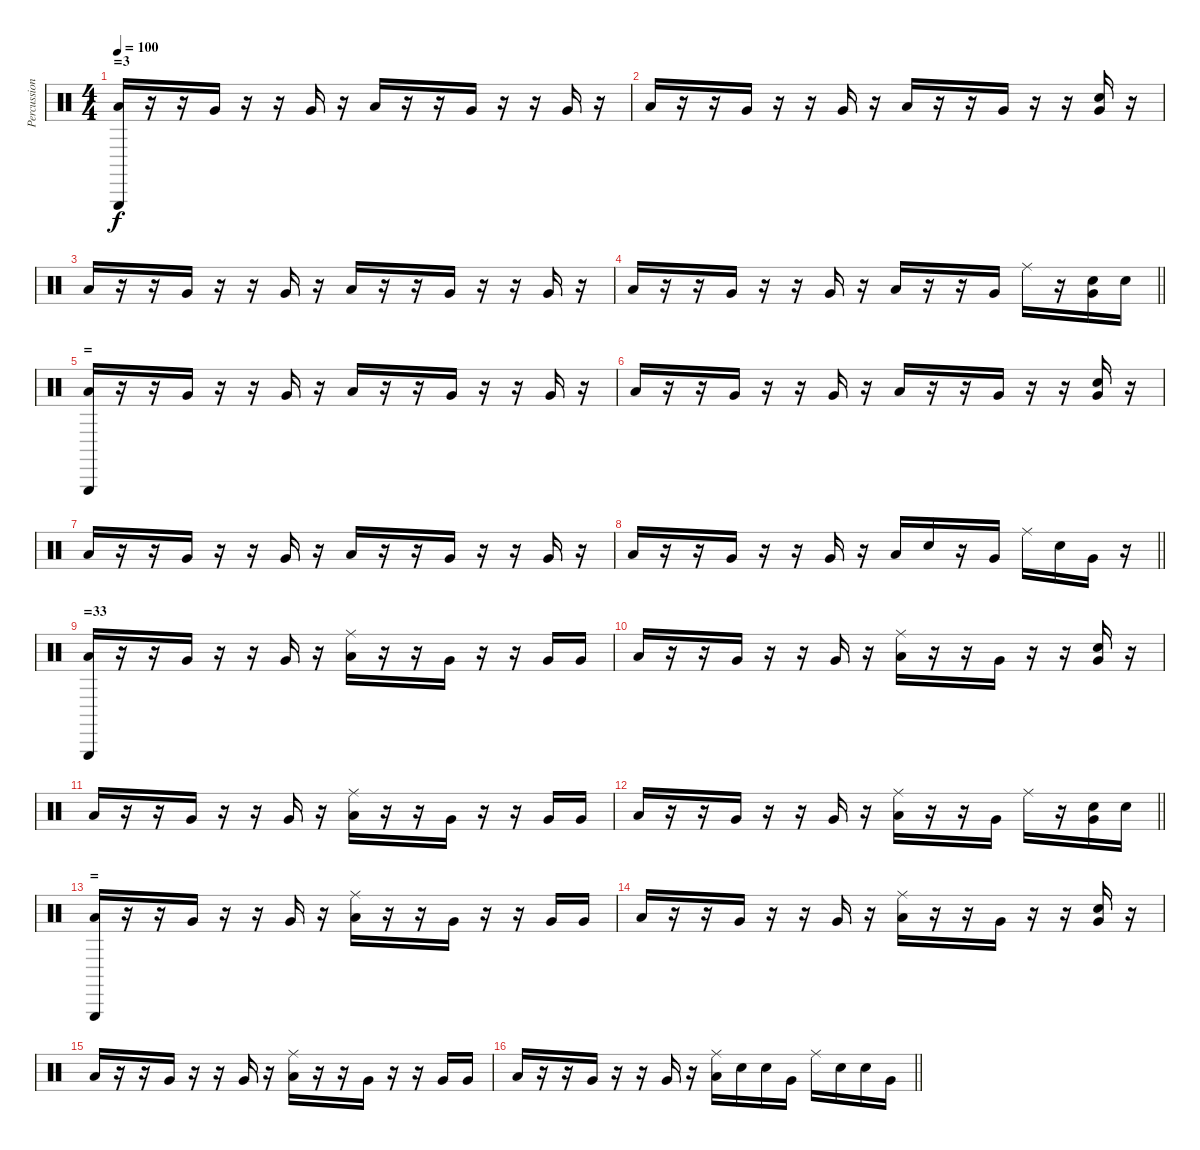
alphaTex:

\track ("Percussion" "Percussion") {instrument percussion}
\staff {score}
\articulation defaults
\ts (4 4)
\section ("" "=3")
\tempo 100
\clef neutral
\ks c
("Low Floor Tom (hit)" "Triangle (hit)").16{dy f} r.16 r.16 "Very Low Tom (hit)".16 r.16 r.16 "Very Low Tom (hit)".16 r.16 "Low Floor Tom (hit)".16 r.16 r.16 "Very Low Tom (hit)".16 r.16 r.16 "Very Low Tom (hit)".16 r.16 |
"Low Floor Tom (hit)".16 r.16 r.16 "Very Low Tom (hit)".16 r.16 r.16 "Very Low Tom (hit)".16 r.16 "Low Floor Tom (hit)".16 r.16 r.16 "Very Low Tom (hit)".16 r.16 r.16 ("Very Low Tom (hit)" "Electric Snare (hit)").16 r.16 |
"Low Floor Tom (hit)".16 r.16 r.16 "Very Low Tom (hit)".16 r.16 r.16 "Very Low Tom (hit)".16 r.16 "Low Floor Tom (hit)".16 r.16 r.16 "Very Low Tom (hit)".16 r.16 r.16 "Very Low Tom (hit)".16 r.16 |
\barLineRight lightlight "Low Floor Tom (hit)".16
r.16 r.16 "Very Low Tom (hit)".16 r.16 r.16 "Very Low Tom (hit)".16 r.16 "Low Floor Tom (hit)".16 r.16 r.16 "Very Low Tom (hit)".16 "Ride (middle)".16 r.16 ("Very Low Tom (hit)" "Electric Snare (hit)").16 "Electric Snare (hit)".16 |
\section ("" "=")
("Low Floor Tom (hit)" "Triangle (hit)").16 r.16 r.16 "Very Low Tom (hit)".16 r.16 r.16 "Very Low Tom (hit)".16 r.16 "Low Floor Tom (hit)".16 r.16 r.16 "Very Low Tom (hit)".16 r.16 r.16 "Very Low Tom (hit)".16 r.16 |
"Low Floor Tom (hit)".16 r.16 r.16 "Very Low Tom (hit)".16 r.16 r.16 "Very Low Tom (hit)".16 r.16 "Low Floor Tom (hit)".16 r.16 r.16 "Very Low Tom (hit)".16 r.16 r.16 ("Very Low Tom (hit)" "Electric Snare (hit)").16 r.16 |
"Low Floor Tom (hit)".16 r.16 r.16 "Very Low Tom (hit)".16 r.16 r.16 "Very Low Tom (hit)".16 r.16 "Low Floor Tom (hit)".16 r.16 r.16 "Very Low Tom (hit)".16 r.16 r.16 "Very Low Tom (hit)".16 r.16 |
\barLineRight lightlight "Low Floor Tom (hit)".16
r.16 r.16 "Very Low Tom (hit)".16 r.16 r.16 "Very Low Tom (hit)".16 r.16 "Low Floor Tom (hit)".16 "Electric Snare (hit)".16 r.16 "Very Low Tom (hit)".16 "Ride (middle)".16 "Electric Snare (hit)".16 "Very Low Tom (hit)".16 r.16 |
\section ("" "=33")
("Low Floor Tom (hit)" "Triangle (hit)").16 r.16 r.16 "Very Low Tom (hit)".16 r.16 r.16 "Very Low Tom (hit)".16 r.16 ("Low Floor Tom (hit)" "Ride (middle)").16 r.16 r.16 "Very Low Tom (hit)".16 r.16 r.16 "Very Low Tom (hit)".16 "Very Low Tom (hit)".16 |
"Low Floor Tom (hit)".16 r.16 r.16 "Very Low Tom (hit)".16 r.16 r.16 "Very Low Tom (hit)".16 r.16 ("Low Floor Tom (hit)" "Ride (middle)").16 r.16 r.16 "Very Low Tom (hit)".16 r.16 r.16 ("Very Low Tom (hit)" "Electric Snare (hit)").16 r.16 |
"Low Floor Tom (hit)".16 r.16 r.16 "Very Low Tom (hit)".16 r.16 r.16 "Very Low Tom (hit)".16 r.16 ("Low Floor Tom (hit)" "Ride (middle)").16 r.16 r.16 "Very Low Tom (hit)".16 r.16 r.16 "Very Low Tom (hit)".16 "Very Low Tom (hit)".16 |
\barLineRight lightlight "Low Floor Tom (hit)".16
r.16 r.16 "Very Low Tom (hit)".16 r.16 r.16 "Very Low Tom (hit)".16 r.16 ("Low Floor Tom (hit)" "Ride (middle)").16 r.16 r.16 "Very Low Tom (hit)".16 "Ride (middle)".16 r.16 ("Very Low Tom (hit)" "Electric Snare (hit)").16 "Electric Snare (hit)".16 |
\section ("" "=")
("Low Floor Tom (hit)" "Triangle (hit)").16 r.16 r.16 "Very Low Tom (hit)".16 r.16 r.16 "Very Low Tom (hit)".16 r.16 ("Low Floor Tom (hit)" "Ride (middle)").16 r.16 r.16 "Very Low Tom (hit)".16 r.16 r.16 "Very Low Tom (hit)".16 "Very Low Tom (hit)".16 |
"Low Floor Tom (hit)".16 r.16 r.16 "Very Low Tom (hit)".16 r.16 r.16 "Very Low Tom (hit)".16 r.16 ("Low Floor Tom (hit)" "Ride (middle)").16 r.16 r.16 "Very Low Tom (hit)".16 r.16 r.16 ("Very Low Tom (hit)" "Electric Snare (hit)").16 r.16 |
"Low Floor Tom (hit)".16 r.16 r.16 "Very Low Tom (hit)".16 r.16 r.16 "Very Low Tom (hit)".16 r.16 ("Low Floor Tom (hit)" "Ride (middle)").16 r.16 r.16 "Very Low Tom (hit)".16 r.16 r.16 "Very Low Tom (hit)".16 "Very Low Tom (hit)".16 |
\barLineRight lightlight "Low Floor Tom (hit)".16
r.16 r.16 "Very Low Tom (hit)".16 r.16 r.16 "Very Low Tom (hit)".16 r.16 ("Low Floor Tom (hit)" "Ride (middle)").16 "Electric Snare (hit)".16 "Electric Snare (hit)".16 "Very Low Tom (hit)".16 "Ride (middle)".16 "Electric Snare (hit)".16 "Electric Snare (hit)".16 "Very Low Tom (hit)".16
